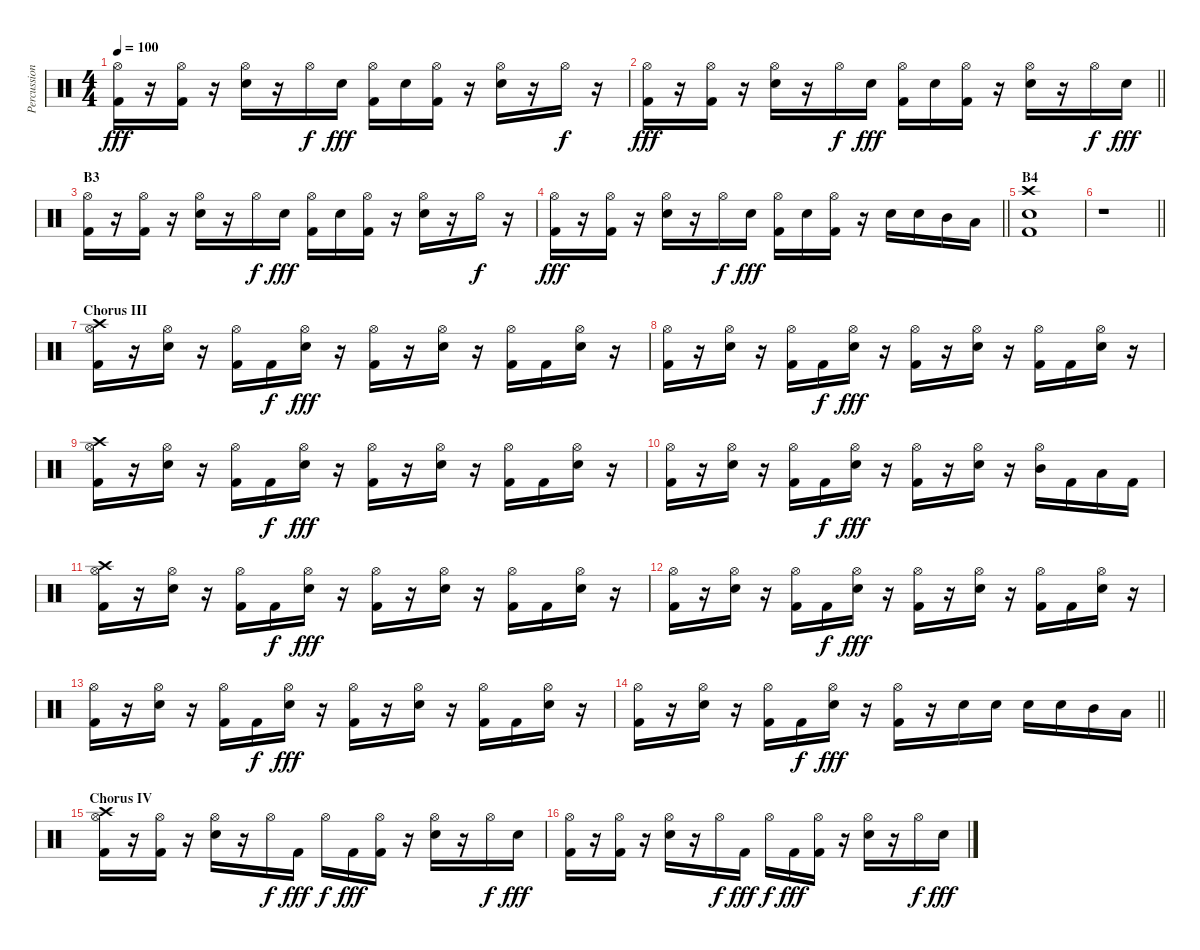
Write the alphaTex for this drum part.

\track ("Percussion" "Percussion") {instrument percussion}
\staff
\articulation defaults
\ts (4 4)
\tempo 100
\clef neutral
\ks c
("Kick (hit) 2" "Hi-Hat (open)").16{dy fff} r.16 ("Kick (hit) 2" "Hi-Hat (open)").16 r.16 ("Electric Snare (hit)" "Hi-Hat (open)").16 r.16 "Hi-Hat (open)".16{dy f} "Electric Snare (hit)".16{dy fff} ("Kick (hit) 2" "Hi-Hat (open)").16 "Electric Snare (hit)".16 ("Kick (hit) 2" "Hi-Hat (open)").16 r.16 ("Electric Snare (hit)" "Hi-Hat (open)").16 r.16 "Hi-Hat (open)".16{dy f} r.16 |
\barLineRight lightlight
("Kick (hit) 2" "Hi-Hat (open)").16{dy fff} r.16 ("Kick (hit) 2" "Hi-Hat (open)").16 r.16 ("Electric Snare (hit)" "Hi-Hat (open)").16 r.16 "Hi-Hat (open)".16{dy f} "Electric Snare (hit)".16{dy fff} ("Kick (hit) 2" "Hi-Hat (open)").16 "Electric Snare (hit)".16 ("Kick (hit) 2" "Hi-Hat (open)").16 r.16 ("Electric Snare (hit)" "Hi-Hat (open)").16 r.16 "Hi-Hat (open)".16{dy f} "Electric Snare (hit)".16{dy fff} |
\section ("" "B3")
("Kick (hit) 2" "Hi-Hat (open)").16 r.16 ("Kick (hit) 2" "Hi-Hat (open)").16 r.16 ("Electric Snare (hit)" "Hi-Hat (open)").16 r.16 "Hi-Hat (open)".16{dy f} "Electric Snare (hit)".16{dy fff} ("Kick (hit) 2" "Hi-Hat (open)").16 "Electric Snare (hit)".16 ("Kick (hit) 2" "Hi-Hat (open)").16 r.16 ("Electric Snare (hit)" "Hi-Hat (open)").16 r.16 "Hi-Hat (open)".16{dy f} r.16 |
\barLineRight lightlight
("Kick (hit) 2" "Hi-Hat (open)").16{dy fff} r.16 ("Kick (hit) 2" "Hi-Hat (open)").16 r.16 ("Electric Snare (hit)" "Hi-Hat (open)").16 r.16 "Hi-Hat (open)".16{dy f} "Electric Snare (hit)".16{dy fff} ("Kick (hit) 2" "Hi-Hat (open)").16 "Electric Snare (hit)".16 ("Kick (hit) 2" "Hi-Hat (open)").16 r.16 "Electric Snare (hit)".16 "Electric Snare (hit)".16 "Mid Tom (hit)".16 "Low Tom (hit)".16 |
\section ("" "B4")
("Kick (hit) 2" "Electric Snare (hit)" "Crash high (hit)").1 |
\barLineRight lightlight
r.1 |
\section ("" "Chorus III")
("Kick (hit) 2" "Hi-Hat (open)" "Crash high (hit)").16 r.16 ("Electric Snare (hit)" "Hi-Hat (open)").16 r.16 ("Kick (hit) 2" "Hi-Hat (open)").16 "Kick (hit) 2".16{dy f} ("Electric Snare (hit)" "Hi-Hat (open)").16{dy fff} r.16 ("Kick (hit) 2" "Hi-Hat (open)").16 r.16 ("Electric Snare (hit)" "Hi-Hat (open)").16 r.16 ("Kick (hit) 2" "Hi-Hat (open)").16 "Kick (hit) 2".16 ("Electric Snare (hit)" "Hi-Hat (open)").16 r.16 |
("Kick (hit) 2" "Hi-Hat (open)").16 r.16 ("Electric Snare (hit)" "Hi-Hat (open)").16 r.16 ("Kick (hit) 2" "Hi-Hat (open)").16 "Kick (hit) 2".16{dy f} ("Electric Snare (hit)" "Hi-Hat (open)").16{dy fff} r.16 ("Kick (hit) 2" "Hi-Hat (open)").16 r.16 ("Electric Snare (hit)" "Hi-Hat (open)").16 r.16 ("Kick (hit) 2" "Hi-Hat (open)").16 "Kick (hit) 2".16 ("Electric Snare (hit)" "Hi-Hat (open)").16 r.16 |
("Kick (hit) 2" "Hi-Hat (open)" "Crash high (hit)").16 r.16 ("Electric Snare (hit)" "Hi-Hat (open)").16 r.16 ("Kick (hit) 2" "Hi-Hat (open)").16 "Kick (hit) 2".16{dy f} ("Electric Snare (hit)" "Hi-Hat (open)").16{dy fff} r.16 ("Kick (hit) 2" "Hi-Hat (open)").16 r.16 ("Electric Snare (hit)" "Hi-Hat (open)").16 r.16 ("Kick (hit) 2" "Hi-Hat (open)").16 "Kick (hit) 2".16 ("Electric Snare (hit)" "Hi-Hat (open)").16 r.16 |
("Kick (hit) 2" "Hi-Hat (open)").16 r.16 ("Electric Snare (hit)" "Hi-Hat (open)").16 r.16 ("Kick (hit) 2" "Hi-Hat (open)").16 "Kick (hit) 2".16{dy f} ("Electric Snare (hit)" "Hi-Hat (open)").16{dy fff} r.16 ("Kick (hit) 2" "Hi-Hat (open)").16 r.16 ("Electric Snare (hit)" "Hi-Hat (open)").16 r.16 ("Mid Tom (hit)" "Hi-Hat (open)").16 "Kick (hit) 2".16 "Low Tom (hit)".16 "Kick (hit) 2".16 |
("Kick (hit) 2" "Hi-Hat (open)" "Crash high (hit)").16 r.16 ("Electric Snare (hit)" "Hi-Hat (open)").16 r.16 ("Kick (hit) 2" "Hi-Hat (open)").16 "Kick (hit) 2".16{dy f} ("Electric Snare (hit)" "Hi-Hat (open)").16{dy fff} r.16 ("Kick (hit) 2" "Hi-Hat (open)").16 r.16 ("Electric Snare (hit)" "Hi-Hat (open)").16 r.16 ("Kick (hit) 2" "Hi-Hat (open)").16 "Kick (hit) 2".16 ("Electric Snare (hit)" "Hi-Hat (open)").16 r.16 |
("Kick (hit) 2" "Hi-Hat (open)").16 r.16 ("Electric Snare (hit)" "Hi-Hat (open)").16 r.16 ("Kick (hit) 2" "Hi-Hat (open)").16 "Kick (hit) 2".16{dy f} ("Electric Snare (hit)" "Hi-Hat (open)").16{dy fff} r.16 ("Kick (hit) 2" "Hi-Hat (open)").16 r.16 ("Electric Snare (hit)" "Hi-Hat (open)").16 r.16 ("Kick (hit) 2" "Hi-Hat (open)").16 "Kick (hit) 2".16 ("Electric Snare (hit)" "Hi-Hat (open)").16 r.16 |
("Kick (hit) 2" "Hi-Hat (open)").16 r.16 ("Electric Snare (hit)" "Hi-Hat (open)").16 r.16 ("Kick (hit) 2" "Hi-Hat (open)").16 "Kick (hit) 2".16{dy f} ("Electric Snare (hit)" "Hi-Hat (open)").16{dy fff} r.16 ("Kick (hit) 2" "Hi-Hat (open)").16 r.16 ("Electric Snare (hit)" "Hi-Hat (open)").16 r.16 ("Kick (hit) 2" "Hi-Hat (open)").16 "Kick (hit) 2".16 ("Electric Snare (hit)" "Hi-Hat (open)").16 r.16 |
\barLineRight lightlight
("Kick (hit) 2" "Hi-Hat (open)").16 r.16 ("Electric Snare (hit)" "Hi-Hat (open)").16 r.16 ("Kick (hit) 2" "Hi-Hat (open)").16 "Kick (hit) 2".16{dy f} ("Electric Snare (hit)" "Hi-Hat (open)").16{dy fff} r.16 ("Kick (hit) 2" "Hi-Hat (open)").16 r.16 "Electric Snare (hit)".16 "Electric Snare (hit)".16 "Electric Snare (hit)".16 "Electric Snare (hit)".16 "Mid Tom (hit)".16 "Low Tom (hit)".16 |
\section ("" "Chorus IV")
("Kick (hit) 2" "Crash high (hit)" "Hi-Hat (open)").16 r.16 ("Kick (hit) 2" "Hi-Hat (open)").16 r.16 ("Electric Snare (hit)" "Hi-Hat (open)").16 r.16 "Hi-Hat (open)".16{dy f} "Kick (hit) 2".16{dy fff} "Hi-Hat (open)".16{dy f} "Kick (hit) 2".16{dy fff} ("Kick (hit) 2" "Hi-Hat (open)").16 r.16 ("Electric Snare (hit)" "Hi-Hat (open)").16 r.16 "Hi-Hat (open)".16{dy f} "Electric Snare (hit)".16{dy fff} |
("Kick (hit) 2" "Hi-Hat (open)").16 r.16 ("Kick (hit) 2" "Hi-Hat (open)").16 r.16 ("Electric Snare (hit)" "Hi-Hat (open)").16 r.16 "Hi-Hat (open)".16{dy f} "Kick (hit) 2".16{dy fff} "Hi-Hat (open)".16{dy f} "Kick (hit) 2".16{dy fff} ("Kick (hit) 2" "Hi-Hat (open)").16 r.16 ("Electric Snare (hit)" "Hi-Hat (open)").16 r.16 "Hi-Hat (open)".16{dy f} "Electric Snare (hit)".16{dy fff}
